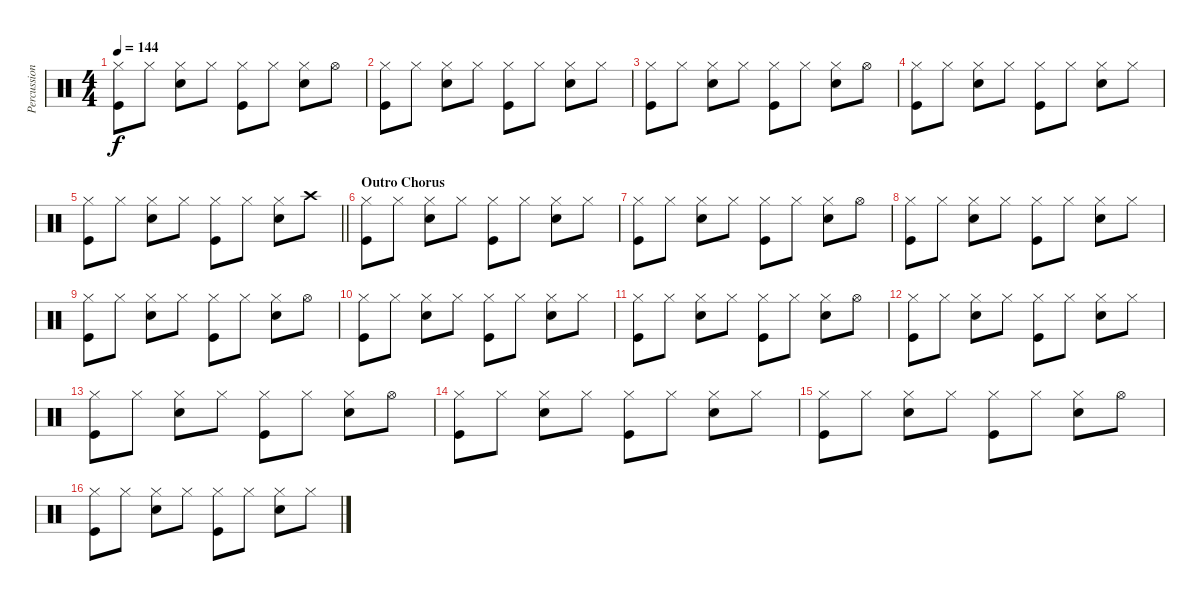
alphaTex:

\track ("Percussion" "Percussion") {instrument percussion}
\staff {score}
\articulation defaults
\ts (4 4)
\tempo 144
\clef neutral
\ks c
("Hi-Hat (closed)" "Kick (hit)").8{dy f} "Hi-Hat (closed)".8 ("Hi-Hat (closed)" "Snare (hit) 2").8 "Hi-Hat (closed)".8 ("Hi-Hat (closed)" "Kick (hit)").8 "Hi-Hat (closed)".8 ("Hi-Hat (closed)" "Snare (hit) 2").8 "Hi-Hat (open)".8 |
("Hi-Hat (closed)" "Kick (hit)").8 "Hi-Hat (closed)".8 ("Hi-Hat (closed)" "Snare (hit) 2").8 "Hi-Hat (closed)".8 ("Hi-Hat (closed)" "Kick (hit)").8 "Hi-Hat (closed)".8 ("Hi-Hat (closed)" "Snare (hit) 2").8 "Hi-Hat (closed)".8 |
("Hi-Hat (closed)" "Kick (hit)").8 "Hi-Hat (closed)".8 ("Hi-Hat (closed)" "Snare (hit) 2").8 "Hi-Hat (closed)".8 ("Hi-Hat (closed)" "Kick (hit)").8 "Hi-Hat (closed)".8 ("Hi-Hat (closed)" "Snare (hit) 2").8 "Hi-Hat (open)".8 |
("Hi-Hat (closed)" "Kick (hit)").8 "Hi-Hat (closed)".8 ("Hi-Hat (closed)" "Snare (hit) 2").8 "Hi-Hat (closed)".8 ("Hi-Hat (closed)" "Kick (hit)").8 "Hi-Hat (closed)".8 ("Hi-Hat (closed)" "Snare (hit) 2").8 "Hi-Hat (closed)".8 |
\barLineRight lightlight
("Hi-Hat (closed)" "Kick (hit)").8 "Hi-Hat (closed)".8 ("Hi-Hat (closed)" "Snare (hit) 2").8 "Hi-Hat (closed)".8 ("Hi-Hat (closed)" "Kick (hit)").8 "Hi-Hat (closed)".8 ("Hi-Hat (closed)" "Snare (hit) 2").8 "Crash high (hit)".8 |
\section ("" "Outro Chorus")
("Hi-Hat (closed)" "Kick (hit)").8 "Hi-Hat (closed)".8 ("Hi-Hat (closed)" "Snare (hit) 2").8 "Hi-Hat (closed)".8 ("Hi-Hat (closed)" "Kick (hit)").8 "Hi-Hat (closed)".8 ("Hi-Hat (closed)" "Snare (hit) 2").8 "Hi-Hat (closed)".8 |
("Hi-Hat (closed)" "Kick (hit)").8 "Hi-Hat (closed)".8 ("Hi-Hat (closed)" "Snare (hit) 2").8 "Hi-Hat (closed)".8 ("Hi-Hat (closed)" "Kick (hit)").8 "Hi-Hat (closed)".8 ("Hi-Hat (closed)" "Snare (hit) 2").8 "Hi-Hat (open)".8 |
("Hi-Hat (closed)" "Kick (hit)").8 "Hi-Hat (closed)".8 ("Hi-Hat (closed)" "Snare (hit) 2").8 "Hi-Hat (closed)".8 ("Hi-Hat (closed)" "Kick (hit)").8 "Hi-Hat (closed)".8 ("Hi-Hat (closed)" "Snare (hit) 2").8 "Hi-Hat (closed)".8 |
("Hi-Hat (closed)" "Kick (hit)").8 "Hi-Hat (closed)".8 ("Hi-Hat (closed)" "Snare (hit) 2").8 "Hi-Hat (closed)".8 ("Hi-Hat (closed)" "Kick (hit)").8 "Hi-Hat (closed)".8 ("Hi-Hat (closed)" "Snare (hit) 2").8 "Hi-Hat (open)".8 |
("Hi-Hat (closed)" "Kick (hit)").8 "Hi-Hat (closed)".8 ("Hi-Hat (closed)" "Snare (hit) 2").8 "Hi-Hat (closed)".8 ("Hi-Hat (closed)" "Kick (hit)").8 "Hi-Hat (closed)".8 ("Hi-Hat (closed)" "Snare (hit) 2").8 "Hi-Hat (closed)".8 |
("Hi-Hat (closed)" "Kick (hit)").8 "Hi-Hat (closed)".8 ("Hi-Hat (closed)" "Snare (hit) 2").8 "Hi-Hat (closed)".8 ("Hi-Hat (closed)" "Kick (hit)").8 "Hi-Hat (closed)".8 ("Hi-Hat (closed)" "Snare (hit) 2").8 "Hi-Hat (open)".8 |
("Hi-Hat (closed)" "Kick (hit)").8 "Hi-Hat (closed)".8 ("Hi-Hat (closed)" "Snare (hit) 2").8 "Hi-Hat (closed)".8 ("Hi-Hat (closed)" "Kick (hit)").8 "Hi-Hat (closed)".8 ("Hi-Hat (closed)" "Snare (hit) 2").8 "Hi-Hat (closed)".8 |
("Hi-Hat (closed)" "Kick (hit)").8 "Hi-Hat (closed)".8 ("Hi-Hat (closed)" "Snare (hit) 2").8 "Hi-Hat (closed)".8 ("Hi-Hat (closed)" "Kick (hit)").8 "Hi-Hat (closed)".8 ("Hi-Hat (closed)" "Snare (hit) 2").8 "Hi-Hat (open)".8 |
("Hi-Hat (closed)" "Kick (hit)").8 "Hi-Hat (closed)".8 ("Hi-Hat (closed)" "Snare (hit) 2").8 "Hi-Hat (closed)".8 ("Hi-Hat (closed)" "Kick (hit)").8 "Hi-Hat (closed)".8 ("Hi-Hat (closed)" "Snare (hit) 2").8 "Hi-Hat (closed)".8 |
("Hi-Hat (closed)" "Kick (hit)").8 "Hi-Hat (closed)".8 ("Hi-Hat (closed)" "Snare (hit) 2").8 "Hi-Hat (closed)".8 ("Hi-Hat (closed)" "Kick (hit)").8 "Hi-Hat (closed)".8 ("Hi-Hat (closed)" "Snare (hit) 2").8 "Hi-Hat (open)".8 |
("Hi-Hat (closed)" "Kick (hit)").8 "Hi-Hat (closed)".8 ("Hi-Hat (closed)" "Snare (hit) 2").8 "Hi-Hat (closed)".8 ("Hi-Hat (closed)" "Kick (hit)").8 "Hi-Hat (closed)".8 ("Hi-Hat (closed)" "Snare (hit) 2").8 "Hi-Hat (closed)".8
